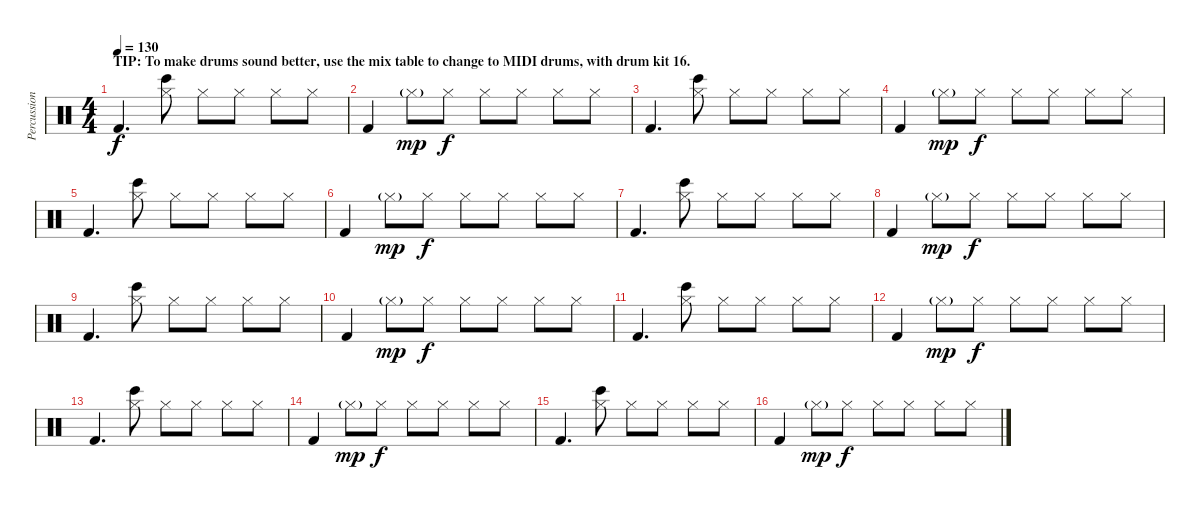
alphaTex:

\track ("Percussion" "Percussion") {instrument percussion}
\staff {score}
\articulation defaults
\ts (4 4)
\section ("" "TIP: To make drums sound better, use the mix table to change to MIDI drums, with drum kit 16.")
\tempo 130
\clef neutral
\ks c "Kick (hit) 2".4{d dy f}
("Hi-Hat (closed)" "Bongo High (hit)").8 "Hi-Hat (closed)".8 "Hi-Hat (closed)".8 "Hi-Hat (closed)".8 "Hi-Hat (closed)".8 |
"Kick (hit) 2".4 "Hi-Hat (closed)"{g}.8{dy mp} "Hi-Hat (closed)".8{dy f} "Hi-Hat (closed)".8 "Hi-Hat (closed)".8 "Hi-Hat (closed)".8 "Hi-Hat (closed)".8 |
"Kick (hit) 2".4{d} ("Hi-Hat (closed)" "Bongo High (hit)").8 "Hi-Hat (closed)".8 "Hi-Hat (closed)".8 "Hi-Hat (closed)".8 "Hi-Hat (closed)".8 |
"Kick (hit) 2".4 "Hi-Hat (closed)"{g}.8{dy mp} "Hi-Hat (closed)".8{dy f} "Hi-Hat (closed)".8 "Hi-Hat (closed)".8 "Hi-Hat (closed)".8 "Hi-Hat (closed)".8 |
"Kick (hit) 2".4{d} ("Hi-Hat (closed)" "Bongo High (hit)").8 "Hi-Hat (closed)".8 "Hi-Hat (closed)".8 "Hi-Hat (closed)".8 "Hi-Hat (closed)".8 |
"Kick (hit) 2".4 "Hi-Hat (closed)"{g}.8{dy mp} "Hi-Hat (closed)".8{dy f} "Hi-Hat (closed)".8 "Hi-Hat (closed)".8 "Hi-Hat (closed)".8 "Hi-Hat (closed)".8 |
"Kick (hit) 2".4{d} ("Hi-Hat (closed)" "Bongo High (hit)").8 "Hi-Hat (closed)".8 "Hi-Hat (closed)".8 "Hi-Hat (closed)".8 "Hi-Hat (closed)".8 |
"Kick (hit) 2".4 "Hi-Hat (closed)"{g}.8{dy mp} "Hi-Hat (closed)".8{dy f} "Hi-Hat (closed)".8 "Hi-Hat (closed)".8 "Hi-Hat (closed)".8 "Hi-Hat (closed)".8 |
"Kick (hit) 2".4{d} ("Hi-Hat (closed)" "Bongo High (hit)").8 "Hi-Hat (closed)".8 "Hi-Hat (closed)".8 "Hi-Hat (closed)".8 "Hi-Hat (closed)".8 |
"Kick (hit) 2".4 "Hi-Hat (closed)"{g}.8{dy mp} "Hi-Hat (closed)".8{dy f} "Hi-Hat (closed)".8 "Hi-Hat (closed)".8 "Hi-Hat (closed)".8 "Hi-Hat (closed)".8 |
"Kick (hit) 2".4{d} ("Hi-Hat (closed)" "Bongo High (hit)").8 "Hi-Hat (closed)".8 "Hi-Hat (closed)".8 "Hi-Hat (closed)".8 "Hi-Hat (closed)".8 |
"Kick (hit) 2".4 "Hi-Hat (closed)"{g}.8{dy mp} "Hi-Hat (closed)".8{dy f} "Hi-Hat (closed)".8 "Hi-Hat (closed)".8 "Hi-Hat (closed)".8 "Hi-Hat (closed)".8 |
"Kick (hit) 2".4{d} ("Hi-Hat (closed)" "Bongo High (hit)").8 "Hi-Hat (closed)".8 "Hi-Hat (closed)".8 "Hi-Hat (closed)".8 "Hi-Hat (closed)".8 |
"Kick (hit) 2".4 "Hi-Hat (closed)"{g}.8{dy mp} "Hi-Hat (closed)".8{dy f} "Hi-Hat (closed)".8 "Hi-Hat (closed)".8 "Hi-Hat (closed)".8 "Hi-Hat (closed)".8 |
"Kick (hit) 2".4{d} ("Hi-Hat (closed)" "Bongo High (hit)").8 "Hi-Hat (closed)".8 "Hi-Hat (closed)".8 "Hi-Hat (closed)".8 "Hi-Hat (closed)".8 |
"Kick (hit) 2".4 "Hi-Hat (closed)"{g}.8{dy mp} "Hi-Hat (closed)".8{dy f} "Hi-Hat (closed)".8 "Hi-Hat (closed)".8 "Hi-Hat (closed)".8 "Hi-Hat (closed)".8
